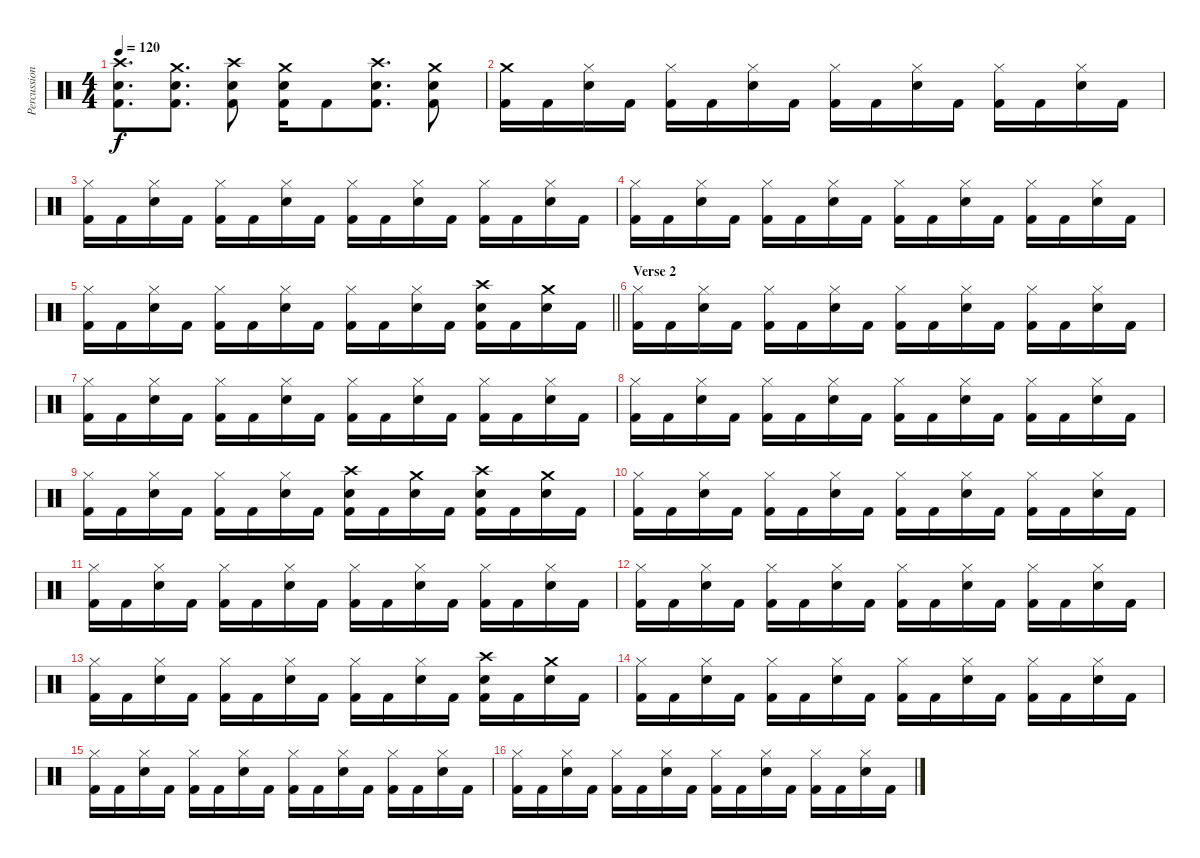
\track ("Percussion" "Percussion") {instrument percussion}
\staff {score}
\articulation defaults
\ts (4 4)
\tempo 120
\clef neutral
\ks c
("Crash high (hit)" "Electric Snare (hit)" "Kick (hit) 2").8{d dy f} ("Crash medium (hit)" "Electric Snare (hit)" "Kick (hit) 2").8{d} ("Crash high (hit)" "Electric Snare (hit)" "Kick (hit) 2").8 ("Crash medium (hit)" "Electric Snare (hit)" "Kick (hit) 2").16 "Kick (hit) 2".8 ("Crash high (hit)" "Electric Snare (hit)" "Kick (hit) 2").8{d} ("Crash medium (hit)" "Electric Snare (hit)" "Kick (hit) 2").8 |
("Crash medium (hit)" "Kick (hit) 2").16 "Kick (hit) 2".16 ("Electric Snare (hit)" "Hi-Hat (closed)").16 "Kick (hit) 2".16 ("Hi-Hat (closed)" "Kick (hit) 2").16 "Kick (hit) 2".16 ("Electric Snare (hit)" "Hi-Hat (closed)").16 "Kick (hit) 2".16 ("Hi-Hat (closed)" "Kick (hit) 2").16 "Kick (hit) 2".16 ("Electric Snare (hit)" "Hi-Hat (closed)").16 "Kick (hit) 2".16 ("Hi-Hat (closed)" "Kick (hit) 2").16 "Kick (hit) 2".16 ("Electric Snare (hit)" "Hi-Hat (closed)").16 "Kick (hit) 2".16 |
("Hi-Hat (closed)" "Kick (hit) 2").16 "Kick (hit) 2".16 ("Electric Snare (hit)" "Hi-Hat (closed)").16 "Kick (hit) 2".16 ("Hi-Hat (closed)" "Kick (hit) 2").16 "Kick (hit) 2".16 ("Electric Snare (hit)" "Hi-Hat (closed)").16 "Kick (hit) 2".16 ("Hi-Hat (closed)" "Kick (hit) 2").16 "Kick (hit) 2".16 ("Electric Snare (hit)" "Hi-Hat (closed)").16 "Kick (hit) 2".16 ("Hi-Hat (closed)" "Kick (hit) 2").16 "Kick (hit) 2".16 ("Electric Snare (hit)" "Hi-Hat (closed)").16 "Kick (hit) 2".16 |
("Hi-Hat (closed)" "Kick (hit) 2").16 "Kick (hit) 2".16 ("Electric Snare (hit)" "Hi-Hat (closed)").16 "Kick (hit) 2".16 ("Hi-Hat (closed)" "Kick (hit) 2").16 "Kick (hit) 2".16 ("Electric Snare (hit)" "Hi-Hat (closed)").16 "Kick (hit) 2".16 ("Hi-Hat (closed)" "Kick (hit) 2").16 "Kick (hit) 2".16 ("Electric Snare (hit)" "Hi-Hat (closed)").16 "Kick (hit) 2".16 ("Hi-Hat (closed)" "Kick (hit) 2").16 "Kick (hit) 2".16 ("Electric Snare (hit)" "Hi-Hat (closed)").16 "Kick (hit) 2".16 |
\barLineRight lightlight
("Hi-Hat (closed)" "Kick (hit) 2").16 "Kick (hit) 2".16 ("Electric Snare (hit)" "Hi-Hat (closed)").16 "Kick (hit) 2".16 ("Hi-Hat (closed)" "Kick (hit) 2").16 "Kick (hit) 2".16 ("Electric Snare (hit)" "Hi-Hat (closed)").16 "Kick (hit) 2".16 ("Hi-Hat (closed)" "Kick (hit) 2").16 "Kick (hit) 2".16 ("Electric Snare (hit)" "Hi-Hat (closed)").16 "Kick (hit) 2".16 ("Crash high (hit)" "Electric Snare (hit)" "Kick (hit) 2").16 "Kick (hit) 2".16 ("Crash medium (hit)" "Electric Snare (hit)").16 "Kick (hit) 2".16 |
\section ("" "Verse 2")
("Hi-Hat (closed)" "Kick (hit) 2").16 "Kick (hit) 2".16 ("Electric Snare (hit)" "Hi-Hat (closed)").16 "Kick (hit) 2".16 ("Hi-Hat (closed)" "Kick (hit) 2").16 "Kick (hit) 2".16 ("Electric Snare (hit)" "Hi-Hat (closed)").16 "Kick (hit) 2".16 ("Hi-Hat (closed)" "Kick (hit) 2").16 "Kick (hit) 2".16 ("Electric Snare (hit)" "Hi-Hat (closed)").16 "Kick (hit) 2".16 ("Hi-Hat (closed)" "Kick (hit) 2").16 "Kick (hit) 2".16 ("Electric Snare (hit)" "Hi-Hat (closed)").16 "Kick (hit) 2".16 |
("Hi-Hat (closed)" "Kick (hit) 2").16 "Kick (hit) 2".16 ("Electric Snare (hit)" "Hi-Hat (closed)").16 "Kick (hit) 2".16 ("Hi-Hat (closed)" "Kick (hit) 2").16 "Kick (hit) 2".16 ("Electric Snare (hit)" "Hi-Hat (closed)").16 "Kick (hit) 2".16 ("Hi-Hat (closed)" "Kick (hit) 2").16 "Kick (hit) 2".16 ("Electric Snare (hit)" "Hi-Hat (closed)").16 "Kick (hit) 2".16 ("Hi-Hat (closed)" "Kick (hit) 2").16 "Kick (hit) 2".16 ("Electric Snare (hit)" "Hi-Hat (closed)").16 "Kick (hit) 2".16 |
("Hi-Hat (closed)" "Kick (hit) 2").16 "Kick (hit) 2".16 ("Electric Snare (hit)" "Hi-Hat (closed)").16 "Kick (hit) 2".16 ("Hi-Hat (closed)" "Kick (hit) 2").16 "Kick (hit) 2".16 ("Electric Snare (hit)" "Hi-Hat (closed)").16 "Kick (hit) 2".16 ("Hi-Hat (closed)" "Kick (hit) 2").16 "Kick (hit) 2".16 ("Electric Snare (hit)" "Hi-Hat (closed)").16 "Kick (hit) 2".16 ("Hi-Hat (closed)" "Kick (hit) 2").16 "Kick (hit) 2".16 ("Electric Snare (hit)" "Hi-Hat (closed)").16 "Kick (hit) 2".16 |
("Hi-Hat (closed)" "Kick (hit) 2").16 "Kick (hit) 2".16 ("Electric Snare (hit)" "Hi-Hat (closed)").16 "Kick (hit) 2".16 ("Hi-Hat (closed)" "Kick (hit) 2").16 "Kick (hit) 2".16 ("Electric Snare (hit)" "Hi-Hat (closed)").16 "Kick (hit) 2".16 ("Crash high (hit)" "Electric Snare (hit)" "Kick (hit) 2").16 "Kick (hit) 2".16 ("Crash medium (hit)" "Electric Snare (hit)").16 "Kick (hit) 2".16 ("Crash high (hit)" "Electric Snare (hit)" "Kick (hit) 2").16 "Kick (hit) 2".16 ("Crash medium (hit)" "Electric Snare (hit)").16 "Kick (hit) 2".16 |
("Hi-Hat (closed)" "Kick (hit) 2").16 "Kick (hit) 2".16 ("Electric Snare (hit)" "Hi-Hat (closed)").16 "Kick (hit) 2".16 ("Hi-Hat (closed)" "Kick (hit) 2").16 "Kick (hit) 2".16 ("Electric Snare (hit)" "Hi-Hat (closed)").16 "Kick (hit) 2".16 ("Hi-Hat (closed)" "Kick (hit) 2").16 "Kick (hit) 2".16 ("Electric Snare (hit)" "Hi-Hat (closed)").16 "Kick (hit) 2".16 ("Hi-Hat (closed)" "Kick (hit) 2").16 "Kick (hit) 2".16 ("Electric Snare (hit)" "Hi-Hat (closed)").16 "Kick (hit) 2".16 |
("Hi-Hat (closed)" "Kick (hit) 2").16 "Kick (hit) 2".16 ("Electric Snare (hit)" "Hi-Hat (closed)").16 "Kick (hit) 2".16 ("Hi-Hat (closed)" "Kick (hit) 2").16 "Kick (hit) 2".16 ("Electric Snare (hit)" "Hi-Hat (closed)").16 "Kick (hit) 2".16 ("Hi-Hat (closed)" "Kick (hit) 2").16 "Kick (hit) 2".16 ("Electric Snare (hit)" "Hi-Hat (closed)").16 "Kick (hit) 2".16 ("Hi-Hat (closed)" "Kick (hit) 2").16 "Kick (hit) 2".16 ("Electric Snare (hit)" "Hi-Hat (closed)").16 "Kick (hit) 2".16 |
("Hi-Hat (closed)" "Kick (hit) 2").16 "Kick (hit) 2".16 ("Electric Snare (hit)" "Hi-Hat (closed)").16 "Kick (hit) 2".16 ("Hi-Hat (closed)" "Kick (hit) 2").16 "Kick (hit) 2".16 ("Electric Snare (hit)" "Hi-Hat (closed)").16 "Kick (hit) 2".16 ("Hi-Hat (closed)" "Kick (hit) 2").16 "Kick (hit) 2".16 ("Electric Snare (hit)" "Hi-Hat (closed)").16 "Kick (hit) 2".16 ("Hi-Hat (closed)" "Kick (hit) 2").16 "Kick (hit) 2".16 ("Electric Snare (hit)" "Hi-Hat (closed)").16 "Kick (hit) 2".16 |
("Hi-Hat (closed)" "Kick (hit) 2").16 "Kick (hit) 2".16 ("Electric Snare (hit)" "Hi-Hat (closed)").16 "Kick (hit) 2".16 ("Hi-Hat (closed)" "Kick (hit) 2").16 "Kick (hit) 2".16 ("Electric Snare (hit)" "Hi-Hat (closed)").16 "Kick (hit) 2".16 ("Hi-Hat (closed)" "Kick (hit) 2").16 "Kick (hit) 2".16 ("Electric Snare (hit)" "Hi-Hat (closed)").16 "Kick (hit) 2".16 ("Crash high (hit)" "Electric Snare (hit)" "Kick (hit) 2").16 "Kick (hit) 2".16 ("Crash medium (hit)" "Electric Snare (hit)").16 "Kick (hit) 2".16 |
("Hi-Hat (closed)" "Kick (hit) 2").16 "Kick (hit) 2".16 ("Electric Snare (hit)" "Hi-Hat (closed)").16 "Kick (hit) 2".16 ("Hi-Hat (closed)" "Kick (hit) 2").16 "Kick (hit) 2".16 ("Electric Snare (hit)" "Hi-Hat (closed)").16 "Kick (hit) 2".16 ("Hi-Hat (closed)" "Kick (hit) 2").16 "Kick (hit) 2".16 ("Electric Snare (hit)" "Hi-Hat (closed)").16 "Kick (hit) 2".16 ("Hi-Hat (closed)" "Kick (hit) 2").16 "Kick (hit) 2".16 ("Electric Snare (hit)" "Hi-Hat (closed)").16 "Kick (hit) 2".16 |
("Hi-Hat (closed)" "Kick (hit) 2").16 "Kick (hit) 2".16 ("Electric Snare (hit)" "Hi-Hat (closed)").16 "Kick (hit) 2".16 ("Hi-Hat (closed)" "Kick (hit) 2").16 "Kick (hit) 2".16 ("Electric Snare (hit)" "Hi-Hat (closed)").16 "Kick (hit) 2".16 ("Hi-Hat (closed)" "Kick (hit) 2").16 "Kick (hit) 2".16 ("Electric Snare (hit)" "Hi-Hat (closed)").16 "Kick (hit) 2".16 ("Hi-Hat (closed)" "Kick (hit) 2").16 "Kick (hit) 2".16 ("Electric Snare (hit)" "Hi-Hat (closed)").16 "Kick (hit) 2".16 |
("Hi-Hat (closed)" "Kick (hit) 2").16 "Kick (hit) 2".16 ("Electric Snare (hit)" "Hi-Hat (closed)").16 "Kick (hit) 2".16 ("Hi-Hat (closed)" "Kick (hit) 2").16 "Kick (hit) 2".16 ("Electric Snare (hit)" "Hi-Hat (closed)").16 "Kick (hit) 2".16 ("Hi-Hat (closed)" "Kick (hit) 2").16 "Kick (hit) 2".16 ("Electric Snare (hit)" "Hi-Hat (closed)").16 "Kick (hit) 2".16 ("Hi-Hat (closed)" "Kick (hit) 2").16 "Kick (hit) 2".16 ("Electric Snare (hit)" "Hi-Hat (closed)").16 "Kick (hit) 2".16
